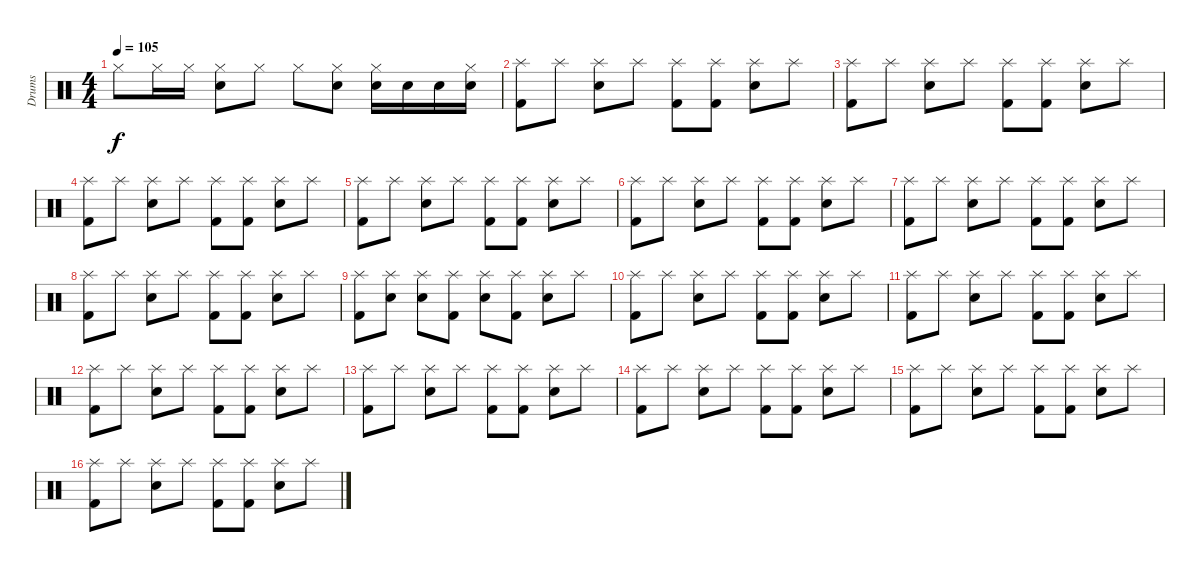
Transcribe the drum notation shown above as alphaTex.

\track ("Drums" "Drums") {instrument percussion}
\staff {score}
\articulation defaults
\ts (4 4)
\tempo 105
\clef neutral
\ks c "Hi-Hat (closed)".8{dy f} "Hi-Hat (closed)".16 "Hi-Hat (closed)".16
("Hi-Hat (closed)" "Snare (hit) 2").8 "Hi-Hat (closed)".8 "Hi-Hat (closed)".8 ("Hi-Hat (closed)" "Snare (hit) 2").8 ("Hi-Hat (closed)" "Snare (hit) 2").16 "Snare (hit) 2".16 "Snare (hit) 2".16 ("Hi-Hat (closed)" "Snare (hit) 2").16 |
("Splash (hit)" "Kick (hit) 2").8 "Splash (hit)".8 ("Splash (hit)" "Snare (hit) 2").8 "Splash (hit)".8 ("Splash (hit)" "Kick (hit) 2").8 ("Splash (hit)" "Kick (hit) 2").8 ("Splash (hit)" "Snare (hit) 2").8 "Splash (hit)".8 |
("Splash (hit)" "Kick (hit) 2").8 "Splash (hit)".8 ("Splash (hit)" "Snare (hit) 2").8 "Splash (hit)".8 ("Splash (hit)" "Kick (hit) 2").8 ("Splash (hit)" "Kick (hit) 2").8 ("Splash (hit)" "Snare (hit) 2").8 "Splash (hit)".8 |
("Splash (hit)" "Kick (hit) 2").8 "Splash (hit)".8 ("Splash (hit)" "Snare (hit) 2").8 "Splash (hit)".8 ("Splash (hit)" "Kick (hit) 2").8 ("Splash (hit)" "Kick (hit) 2").8 ("Splash (hit)" "Snare (hit) 2").8 "Splash (hit)".8 |
("Splash (hit)" "Kick (hit) 2").8 "Splash (hit)".8 ("Splash (hit)" "Snare (hit) 2").8 "Splash (hit)".8 ("Splash (hit)" "Kick (hit) 2").8 ("Splash (hit)" "Kick (hit) 2").8 ("Splash (hit)" "Snare (hit) 2").8 "Splash (hit)".8 |
("Splash (hit)" "Kick (hit) 2").8 "Splash (hit)".8 ("Splash (hit)" "Snare (hit) 2").8 "Splash (hit)".8 ("Splash (hit)" "Kick (hit) 2").8 ("Splash (hit)" "Kick (hit) 2").8 ("Splash (hit)" "Snare (hit) 2").8 "Splash (hit)".8 |
("Splash (hit)" "Kick (hit) 2").8 "Splash (hit)".8 ("Splash (hit)" "Snare (hit) 2").8 "Splash (hit)".8 ("Splash (hit)" "Kick (hit) 2").8 ("Splash (hit)" "Kick (hit) 2").8 ("Splash (hit)" "Snare (hit) 2").8 "Splash (hit)".8 |
("Splash (hit)" "Kick (hit) 2").8 "Splash (hit)".8 ("Splash (hit)" "Snare (hit) 2").8 "Splash (hit)".8 ("Splash (hit)" "Kick (hit) 2").8 ("Splash (hit)" "Kick (hit) 2").8 ("Splash (hit)" "Snare (hit) 2").8 "Splash (hit)".8 |
("Splash (hit)" "Kick (hit) 2").8 ("Splash (hit)" "Snare (hit) 2").8 ("Splash (hit)" "Snare (hit) 2").8 ("Splash (hit)" "Kick (hit) 2").8 ("Splash (hit)" "Snare (hit) 2").8 ("Splash (hit)" "Kick (hit) 2").8 ("Splash (hit)" "Snare (hit) 2").8 "Splash (hit)".8 |
("Splash (hit)" "Kick (hit) 2").8 "Splash (hit)".8 ("Splash (hit)" "Snare (hit) 2").8 "Splash (hit)".8 ("Splash (hit)" "Kick (hit) 2").8 ("Splash (hit)" "Kick (hit) 2").8 ("Splash (hit)" "Snare (hit) 2").8 "Splash (hit)".8 |
("Splash (hit)" "Kick (hit) 2").8 "Splash (hit)".8 ("Splash (hit)" "Snare (hit) 2").8 "Splash (hit)".8 ("Splash (hit)" "Kick (hit) 2").8 ("Splash (hit)" "Kick (hit) 2").8 ("Splash (hit)" "Snare (hit) 2").8 "Splash (hit)".8 |
("Splash (hit)" "Kick (hit) 2").8 "Splash (hit)".8 ("Splash (hit)" "Snare (hit) 2").8 "Splash (hit)".8 ("Splash (hit)" "Kick (hit) 2").8 ("Splash (hit)" "Kick (hit) 2").8 ("Splash (hit)" "Snare (hit) 2").8 "Splash (hit)".8 |
("Splash (hit)" "Kick (hit) 2").8 "Splash (hit)".8 ("Splash (hit)" "Snare (hit) 2").8 "Splash (hit)".8 ("Splash (hit)" "Kick (hit) 2").8 ("Splash (hit)" "Kick (hit) 2").8 ("Splash (hit)" "Snare (hit) 2").8 "Splash (hit)".8 |
("Splash (hit)" "Kick (hit) 2").8 "Splash (hit)".8 ("Splash (hit)" "Snare (hit) 2").8 "Splash (hit)".8 ("Splash (hit)" "Kick (hit) 2").8 ("Splash (hit)" "Kick (hit) 2").8 ("Splash (hit)" "Snare (hit) 2").8 "Splash (hit)".8 |
("Splash (hit)" "Kick (hit) 2").8 "Splash (hit)".8 ("Splash (hit)" "Snare (hit) 2").8 "Splash (hit)".8 ("Splash (hit)" "Kick (hit) 2").8 ("Splash (hit)" "Kick (hit) 2").8 ("Splash (hit)" "Snare (hit) 2").8 "Splash (hit)".8 |
("Splash (hit)" "Kick (hit) 2").8 "Splash (hit)".8 ("Splash (hit)" "Snare (hit) 2").8 "Splash (hit)".8 ("Splash (hit)" "Kick (hit) 2").8 ("Splash (hit)" "Kick (hit) 2").8 ("Splash (hit)" "Snare (hit) 2").8 "Splash (hit)".8
